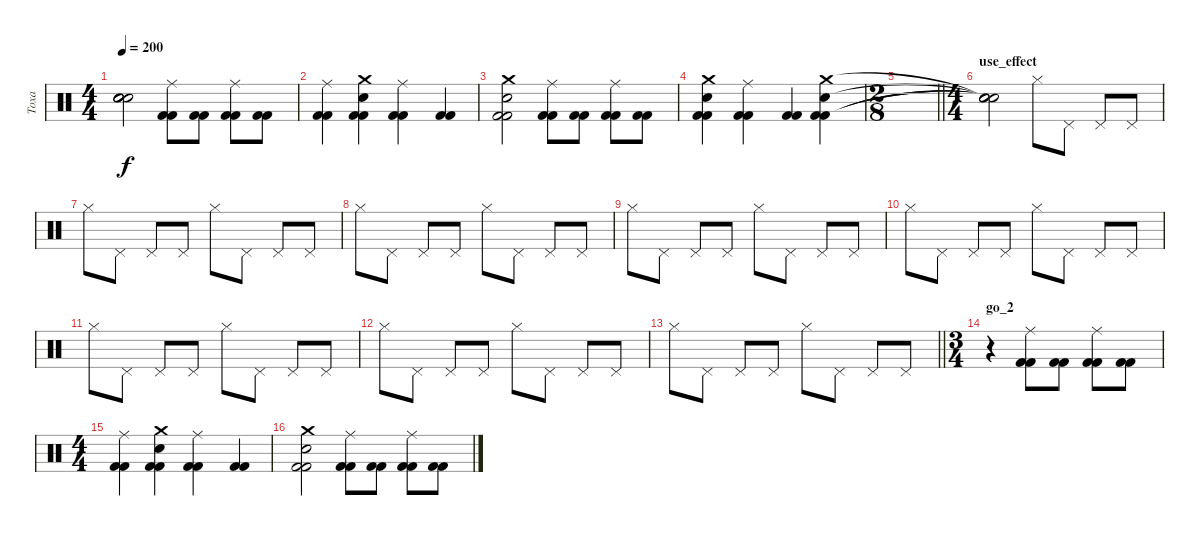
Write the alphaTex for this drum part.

\track ("Toxa" "Toxa") {instrument percussion}
\staff {score}
\articulation defaults
\ts (4 4)
\tempo 200
\clef neutral
\ks c
("Snare (hit)"{t} "Snare (hit)"{t} "Snare (hit)"{t} "Snare (hit)"{t}).2{dy f} ("Kick (hit) 2" "Ride (middle)" "Kick (hit) 2").8 ("Kick (hit) 2" "Kick (hit) 2").8 ("Kick (hit) 2" "Ride (middle)" "Kick (hit) 2").8 ("Kick (hit) 2" "Kick (hit) 2").8 |
("Kick (hit) 2" "Ride (middle)" "Kick (hit) 2").4 ("Kick (hit) 2" "Electric Snare (hit)" "Kick (hit) 2" "Crash medium (hit)").4 ("Kick (hit) 2" "Ride (middle)" "Kick (hit) 2").4 ("Kick (hit) 2" "Kick (hit) 2").4 |
("Crash medium (hit)" "Kick (hit) 2" "Electric Snare (hit)" "Kick (hit) 2").2 ("Kick (hit) 2" "Ride (middle)" "Kick (hit) 2").8 ("Kick (hit) 2" "Kick (hit) 2").8 ("Ride (middle)" "Kick (hit) 2" "Kick (hit) 2").8 ("Kick (hit) 2" "Kick (hit) 2").8 |
("Crash medium (hit)" "Kick (hit) 2" "Electric Snare (hit)" "Kick (hit) 2").4 ("Kick (hit) 2" "Ride (middle)" "Kick (hit) 2").4 ("Kick (hit) 2" "Kick (hit) 2").4 ("Crash medium (hit)" "Kick (hit) 2" "Electric Snare (hit)" "Kick (hit) 2").4 |
\ts (2 8)
\barLineRight lightlight
|
\ts (4 4)
\section ("" "use_effect")
("Snare (hit)"{t} "Snare (hit)"{t} "Snare (hit)"{t} "Snare (hit)"{t}).2 "Hi-Hat (closed)".8 "Pedal Hi-Hat (hit)".8 "Pedal Hi-Hat (hit)".8 "Pedal Hi-Hat (hit)".8 |
"Hi-Hat (closed)".8 "Pedal Hi-Hat (hit)".8 "Pedal Hi-Hat (hit)".8 "Pedal Hi-Hat (hit)".8 "Hi-Hat (closed)".8 "Pedal Hi-Hat (hit)".8 "Pedal Hi-Hat (hit)".8 "Pedal Hi-Hat (hit)".8 |
"Hi-Hat (closed)".8 "Pedal Hi-Hat (hit)".8 "Pedal Hi-Hat (hit)".8 "Pedal Hi-Hat (hit)".8 "Hi-Hat (closed)".8 "Pedal Hi-Hat (hit)".8 "Pedal Hi-Hat (hit)".8 "Pedal Hi-Hat (hit)".8 |
"Hi-Hat (closed)".8 "Pedal Hi-Hat (hit)".8 "Pedal Hi-Hat (hit)".8 "Pedal Hi-Hat (hit)".8 "Hi-Hat (closed)".8 "Pedal Hi-Hat (hit)".8 "Pedal Hi-Hat (hit)".8 "Pedal Hi-Hat (hit)".8 |
"Hi-Hat (closed)".8 "Pedal Hi-Hat (hit)".8 "Pedal Hi-Hat (hit)".8 "Pedal Hi-Hat (hit)".8 "Hi-Hat (closed)".8 "Pedal Hi-Hat (hit)".8 "Pedal Hi-Hat (hit)".8 "Pedal Hi-Hat (hit)".8 |
"Hi-Hat (closed)".8 "Pedal Hi-Hat (hit)".8 "Pedal Hi-Hat (hit)".8 "Pedal Hi-Hat (hit)".8 "Hi-Hat (closed)".8 "Pedal Hi-Hat (hit)".8 "Pedal Hi-Hat (hit)".8 "Pedal Hi-Hat (hit)".8 |
"Hi-Hat (closed)".8 "Pedal Hi-Hat (hit)".8 "Pedal Hi-Hat (hit)".8 "Pedal Hi-Hat (hit)".8 "Hi-Hat (closed)".8 "Pedal Hi-Hat (hit)".8 "Pedal Hi-Hat (hit)".8 "Pedal Hi-Hat (hit)".8 |
\barLineRight lightlight "Hi-Hat (closed)".8 "Pedal Hi-Hat (hit)".8 "Pedal Hi-Hat (hit)".8 "Pedal Hi-Hat (hit)".8 "Hi-Hat (closed)".8 "Pedal Hi-Hat (hit)".8 "Pedal Hi-Hat (hit)".8 "Pedal Hi-Hat (hit)".8
|
\ts (3 4)
\section ("" "go_2")
r.4 ("Kick (hit) 2" "Ride (middle)" "Kick (hit) 2").8 ("Kick (hit) 2" "Kick (hit) 2").8 ("Kick (hit) 2" "Ride (middle)" "Kick (hit) 2").8 ("Kick (hit) 2" "Kick (hit) 2").8 |
\ts (4 4)
("Kick (hit) 2" "Ride (middle)" "Kick (hit) 2").4 ("Kick (hit) 2" "Electric Snare (hit)" "Kick (hit) 2" "Crash medium (hit)").4 ("Kick (hit) 2" "Ride (middle)" "Kick (hit) 2").4 ("Kick (hit) 2" "Kick (hit) 2").4 |
("Crash medium (hit)" "Kick (hit) 2" "Electric Snare (hit)" "Kick (hit) 2").2 ("Kick (hit) 2" "Ride (middle)" "Kick (hit) 2").8 ("Kick (hit) 2" "Kick (hit) 2").8 ("Ride (middle)" "Kick (hit) 2" "Kick (hit) 2").8 ("Kick (hit) 2" "Kick (hit) 2").8
